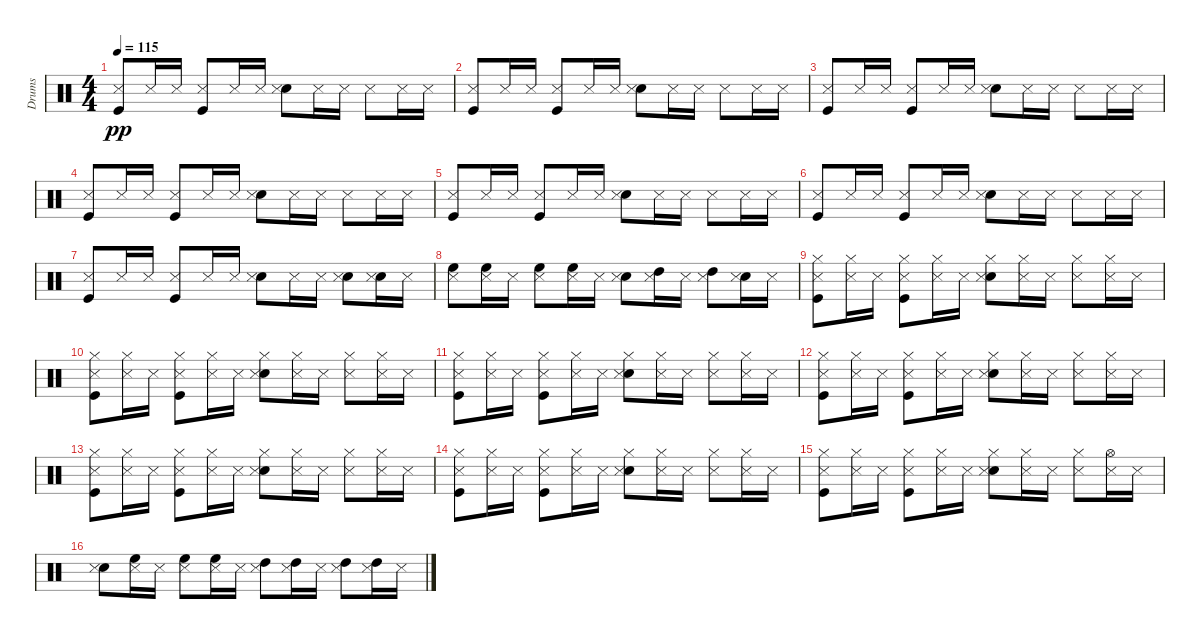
\track ("Drums" "Drums") {instrument percussion}
\staff {score}
\articulation defaults
\ts (4 4)
\tempo 115
\clef neutral
\ks c
("Snare (side stick) 3" "Kick (hit)").8{dy pp} "Snare (side stick) 3".16 "Snare (side stick) 3".16 ("Snare (side stick) 3" "Kick (hit)").8 "Snare (side stick) 3".16 "Snare (side stick) 3".16 ("Snare (hit) 2" "Snare (side stick) 3").8 "Snare (side stick) 3".16 "Snare (side stick) 3".16 "Snare (side stick) 3".8 "Snare (side stick) 3".16 "Snare (side stick) 3".16 |
("Snare (side stick) 3" "Kick (hit)").8 "Snare (side stick) 3".16 "Snare (side stick) 3".16 ("Snare (side stick) 3" "Kick (hit)").8 "Snare (side stick) 3".16 "Snare (side stick) 3".16 ("Snare (hit) 2" "Snare (side stick) 3").8 "Snare (side stick) 3".16 "Snare (side stick) 3".16 "Snare (side stick) 3".8 "Snare (side stick) 3".16 "Snare (side stick) 3".16 |
("Snare (side stick) 3" "Kick (hit)").8 "Snare (side stick) 3".16 "Snare (side stick) 3".16 ("Snare (side stick) 3" "Kick (hit)").8 "Snare (side stick) 3".16 "Snare (side stick) 3".16 ("Snare (hit) 2" "Snare (side stick) 3").8 "Snare (side stick) 3".16 "Snare (side stick) 3".16 "Snare (side stick) 3".8 "Snare (side stick) 3".16 "Snare (side stick) 3".16 |
("Snare (side stick) 3" "Kick (hit)").8 "Snare (side stick) 3".16 "Snare (side stick) 3".16 ("Snare (side stick) 3" "Kick (hit)").8 "Snare (side stick) 3".16 "Snare (side stick) 3".16 ("Snare (hit) 2" "Snare (side stick) 3").8 "Snare (side stick) 3".16 "Snare (side stick) 3".16 "Snare (side stick) 3".8 "Snare (side stick) 3".16 "Snare (side stick) 3".16 |
("Snare (side stick) 3" "Kick (hit)").8 "Snare (side stick) 3".16 "Snare (side stick) 3".16 ("Snare (side stick) 3" "Kick (hit)").8 "Snare (side stick) 3".16 "Snare (side stick) 3".16 ("Snare (hit) 2" "Snare (side stick) 3").8 "Snare (side stick) 3".16 "Snare (side stick) 3".16 "Snare (side stick) 3".8 "Snare (side stick) 3".16 "Snare (side stick) 3".16 |
("Snare (side stick) 3" "Kick (hit)").8 "Snare (side stick) 3".16 "Snare (side stick) 3".16 ("Snare (side stick) 3" "Kick (hit)").8 "Snare (side stick) 3".16 "Snare (side stick) 3".16 ("Snare (hit) 2" "Snare (side stick) 3").8 "Snare (side stick) 3".16 "Snare (side stick) 3".16 "Snare (side stick) 3".8 "Snare (side stick) 3".16 "Snare (side stick) 3".16 |
("Snare (side stick) 3" "Kick (hit)").8 "Snare (side stick) 3".16 "Snare (side stick) 3".16 ("Snare (side stick) 3" "Kick (hit)").8 "Snare (side stick) 3".16 "Snare (side stick) 3".16 ("Snare (hit) 2" "Snare (side stick) 3").8 "Snare (side stick) 3".16 "Snare (side stick) 3".16 ("Snare (hit) 2" "Snare (side stick) 3").8 ("Snare (hit) 2" "Snare (side stick) 3").16 "Snare (side stick) 3".16 |
("High Floor Tom (hit)" "Snare (side stick) 3").8 ("High Floor Tom (hit)" "Snare (side stick) 3").16 "Snare (side stick) 3".16 ("High Floor Tom (hit)" "Snare (side stick) 3").8 ("High Floor Tom (hit)" "Snare (side stick) 3").16 "Snare (side stick) 3".16 ("Snare (hit) 2" "Snare (side stick) 3").8 ("High Tom (hit)" "Snare (side stick) 3").16 "Snare (side stick) 3".16 ("High Tom (hit)" "Snare (side stick) 3").8 ("Snare (hit) 2" "Snare (side stick) 3").16 "Snare (side stick) 3".16 |
("Hi-Hat (closed)" "Snare (side stick) 3" "Kick (hit)").8 ("Hi-Hat (closed)" "Snare (side stick) 3").16 "Snare (side stick) 3".16 ("Hi-Hat (closed)" "Snare (side stick) 3" "Kick (hit)").8 ("Hi-Hat (closed)" "Snare (side stick) 3").16 "Snare (side stick) 3".16 ("Hi-Hat (closed)" "Snare (hit) 2" "Snare (side stick) 3").8 ("Hi-Hat (closed)" "Snare (side stick) 3").16 "Snare (side stick) 3".16 ("Hi-Hat (closed)" "Snare (side stick) 3").8 ("Hi-Hat (closed)" "Snare (side stick) 3").16 "Snare (side stick) 3".16 |
("Hi-Hat (closed)" "Snare (side stick) 3" "Kick (hit)").8 ("Hi-Hat (closed)" "Snare (side stick) 3").16 "Snare (side stick) 3".16 ("Hi-Hat (closed)" "Snare (side stick) 3" "Kick (hit)").8 ("Hi-Hat (closed)" "Snare (side stick) 3").16 "Snare (side stick) 3".16 ("Hi-Hat (closed)" "Snare (hit) 2" "Snare (side stick) 3").8 ("Hi-Hat (closed)" "Snare (side stick) 3").16 "Snare (side stick) 3".16 ("Hi-Hat (closed)" "Snare (side stick) 3").8 ("Hi-Hat (closed)" "Snare (side stick) 3").16 "Snare (side stick) 3".16 |
("Hi-Hat (closed)" "Snare (side stick) 3" "Kick (hit)").8 ("Hi-Hat (closed)" "Snare (side stick) 3").16 "Snare (side stick) 3".16 ("Hi-Hat (closed)" "Snare (side stick) 3" "Kick (hit)").8 ("Hi-Hat (closed)" "Snare (side stick) 3").16 "Snare (side stick) 3".16 ("Hi-Hat (closed)" "Snare (hit) 2" "Snare (side stick) 3").8 ("Hi-Hat (closed)" "Snare (side stick) 3").16 "Snare (side stick) 3".16 ("Hi-Hat (closed)" "Snare (side stick) 3").8 ("Hi-Hat (closed)" "Snare (side stick) 3").16 "Snare (side stick) 3".16 |
("Hi-Hat (closed)" "Snare (side stick) 3" "Kick (hit)").8 ("Hi-Hat (closed)" "Snare (side stick) 3").16 "Snare (side stick) 3".16 ("Hi-Hat (closed)" "Snare (side stick) 3" "Kick (hit)").8 ("Hi-Hat (closed)" "Snare (side stick) 3").16 "Snare (side stick) 3".16 ("Hi-Hat (closed)" "Snare (hit) 2" "Snare (side stick) 3").8 ("Hi-Hat (closed)" "Snare (side stick) 3").16 "Snare (side stick) 3".16 ("Hi-Hat (closed)" "Snare (side stick) 3").8 ("Hi-Hat (closed)" "Snare (side stick) 3").16 "Snare (side stick) 3".16 |
("Hi-Hat (closed)" "Snare (side stick) 3" "Kick (hit)").8 ("Hi-Hat (closed)" "Snare (side stick) 3").16 "Snare (side stick) 3".16 ("Hi-Hat (closed)" "Snare (side stick) 3" "Kick (hit)").8 ("Hi-Hat (closed)" "Snare (side stick) 3").16 "Snare (side stick) 3".16 ("Hi-Hat (closed)" "Snare (hit) 2" "Snare (side stick) 3").8 ("Hi-Hat (closed)" "Snare (side stick) 3").16 "Snare (side stick) 3".16 ("Hi-Hat (closed)" "Snare (side stick) 3").8 ("Hi-Hat (closed)" "Snare (side stick) 3").16 "Snare (side stick) 3".16 |
("Hi-Hat (closed)" "Snare (side stick) 3" "Kick (hit)").8 ("Hi-Hat (closed)" "Snare (side stick) 3").16 "Snare (side stick) 3".16 ("Hi-Hat (closed)" "Snare (side stick) 3" "Kick (hit)").8 ("Hi-Hat (closed)" "Snare (side stick) 3").16 "Snare (side stick) 3".16 ("Hi-Hat (closed)" "Snare (hit) 2" "Snare (side stick) 3").8 ("Hi-Hat (closed)" "Snare (side stick) 3").16 "Snare (side stick) 3".16 ("Hi-Hat (closed)" "Snare (side stick) 3").8 ("Hi-Hat (closed)" "Snare (side stick) 3").16 "Snare (side stick) 3".16 |
("Hi-Hat (closed)" "Snare (side stick) 3" "Kick (hit)").8 ("Hi-Hat (closed)" "Snare (side stick) 3").16 "Snare (side stick) 3".16 ("Hi-Hat (closed)" "Snare (side stick) 3" "Kick (hit)").8 ("Hi-Hat (closed)" "Snare (side stick) 3").16 "Snare (side stick) 3".16 ("Hi-Hat (closed)" "Snare (hit) 2" "Snare (side stick) 3").8 ("Hi-Hat (closed)" "Snare (side stick) 3").16 "Snare (side stick) 3".16 ("Hi-Hat (closed)" "Snare (side stick) 3").8 ("Hi-Hat (open)" "Snare (side stick) 3").16 "Snare (side stick) 3".16 |
("Snare (hit) 2" "Snare (side stick) 3").8 ("High Floor Tom (hit)" "Snare (side stick) 3").16 "Snare (side stick) 3".16 ("High Floor Tom (hit)" "Snare (side stick) 3").8 ("High Floor Tom (hit)" "Snare (side stick) 3").16 "Snare (side stick) 3".16 ("High Tom (hit)" "Snare (side stick) 3").8 ("High Tom (hit)" "Snare (side stick) 3").16 "Snare (side stick) 3".16 ("High Tom (hit)" "Snare (side stick) 3").8 ("High Tom (hit)" "Snare (side stick) 3").16 "Snare (side stick) 3".16
